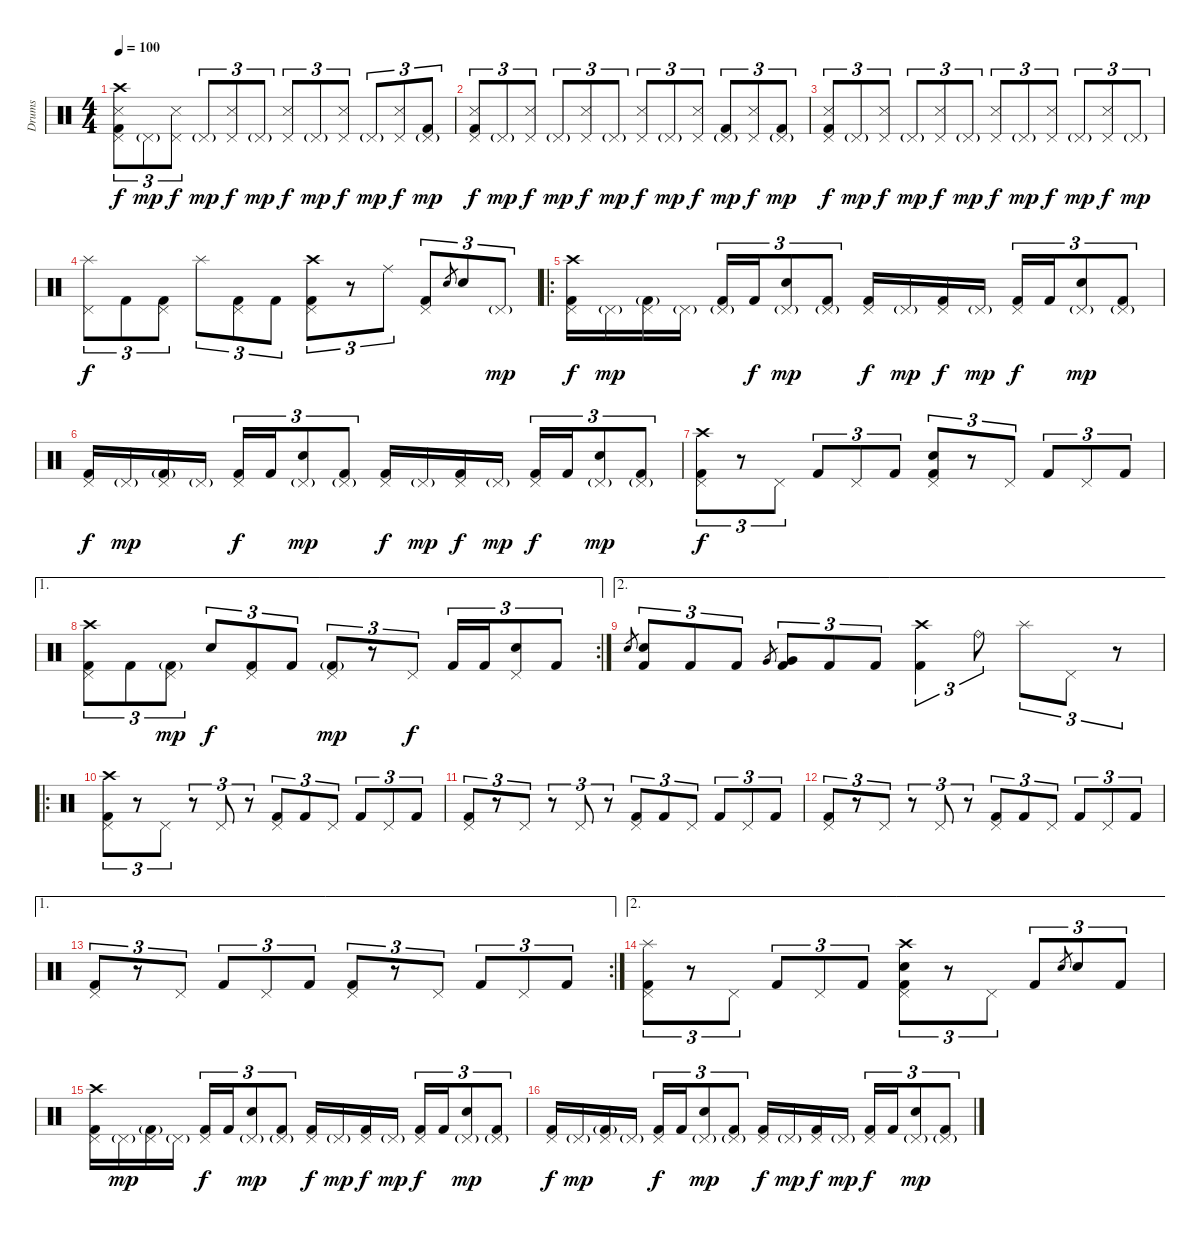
\track ("Drums" "Drums") {instrument percussion}
\staff {score}
\articulation defaults
\ts (4 4)
\tempo 100
\clef neutral
\ks c
("Crash high (hit)" "Pedal Hi-Hat (hit)" "Snare (side stick) 3" "Kick (hit) 2").8{tu (3 2) dy f} "Pedal Hi-Hat (hit)"{g}.8{tu (3 2) dy mp} ("Pedal Hi-Hat (hit)" "Snare (side stick) 3").8{tu (3 2) dy f} "Pedal Hi-Hat (hit)"{g}.8{tu (3 2) dy mp} ("Pedal Hi-Hat (hit)" "Snare (side stick) 3").8{tu (3 2) dy f} "Pedal Hi-Hat (hit)"{g}.8{tu (3 2) dy mp} ("Pedal Hi-Hat (hit)" "Snare (side stick) 3").8{tu (3 2) dy f} "Pedal Hi-Hat (hit)"{g}.8{tu (3 2) dy mp} ("Pedal Hi-Hat (hit)" "Snare (side stick) 3").8{tu (3 2) dy f} "Pedal Hi-Hat (hit)"{g}.8{tu (3 2) dy mp} ("Pedal Hi-Hat (hit)" "Snare (side stick) 3").8{tu (3 2) dy f} ("Pedal Hi-Hat (hit)"{g} "Kick (hit) 2").8{tu (3 2) dy mp} |
("Pedal Hi-Hat (hit)" "Snare (side stick) 3" "Kick (hit) 2").8{tu (3 2) dy f} "Pedal Hi-Hat (hit)"{g}.8{tu (3 2) dy mp} ("Pedal Hi-Hat (hit)" "Snare (side stick) 3").8{tu (3 2) dy f} "Pedal Hi-Hat (hit)"{g}.8{tu (3 2) dy mp} ("Pedal Hi-Hat (hit)" "Snare (side stick) 3").8{tu (3 2) dy f} "Pedal Hi-Hat (hit)"{g}.8{tu (3 2) dy mp} ("Pedal Hi-Hat (hit)" "Snare (side stick) 3").8{tu (3 2) dy f} "Pedal Hi-Hat (hit)"{g}.8{tu (3 2) dy mp} ("Pedal Hi-Hat (hit)" "Snare (side stick) 3").8{tu (3 2) dy f} ("Pedal Hi-Hat (hit)"{g} "Kick (hit) 2").8{tu (3 2) dy mp} ("Pedal Hi-Hat (hit)" "Snare (side stick) 3").8{tu (3 2) dy f} ("Pedal Hi-Hat (hit)"{g} "Kick (hit) 2").8{tu (3 2) dy mp} |
("Pedal Hi-Hat (hit)" "Snare (side stick) 3" "Kick (hit) 2").8{tu (3 2) dy f} "Pedal Hi-Hat (hit)"{g}.8{tu (3 2) dy mp} ("Pedal Hi-Hat (hit)" "Snare (side stick) 3").8{tu (3 2) dy f} "Pedal Hi-Hat (hit)"{g}.8{tu (3 2) dy mp} ("Pedal Hi-Hat (hit)" "Snare (side stick) 3").8{tu (3 2) dy f} "Pedal Hi-Hat (hit)"{g}.8{tu (3 2) dy mp} ("Pedal Hi-Hat (hit)" "Snare (side stick) 3").8{tu (3 2) dy f} "Pedal Hi-Hat (hit)"{g}.8{tu (3 2) dy mp} ("Pedal Hi-Hat (hit)" "Snare (side stick) 3").8{tu (3 2) dy f} "Pedal Hi-Hat (hit)"{g}.8{tu (3 2) dy mp} ("Pedal Hi-Hat (hit)" "Snare (side stick) 3").8{tu (3 2) dy f} "Pedal Hi-Hat (hit)"{g}.8{tu (3 2) dy mp} |
("Splash (hit)" "Pedal Hi-Hat (hit)").8{tu (3 2) dy f} "Kick (hit) 2".8{tu (3 2)} ("Pedal Hi-Hat (hit)" "Kick (hit) 2").8{tu (3 2)} "Splash (hit)".8{tu (3 2)} ("Pedal Hi-Hat (hit)" "Kick (hit) 2").8{tu (3 2)} "Kick (hit) 2".8{tu (3 2)} ("Crash high (hit)" "Pedal Hi-Hat (hit)" "Kick (hit) 2").8{tu (3 2)} r.8{tu (3 2)} "Ride (middle)".8{tu (3 2)} ("Pedal Hi-Hat (hit)" "Kick (hit) 2").8{tu (3 2)} "Snare (hit) 2".8{gr} "Snare (hit) 2".8{tu (3 2)} "Pedal Hi-Hat (hit)"{g}.8{tu (3 2) dy mp} |
\ro
("Crash high (hit)" "Pedal Hi-Hat (hit)" "Kick (hit) 2").16{dy f} "Pedal Hi-Hat (hit)"{g}.16{dy mp} ("Pedal Hi-Hat (hit)" "Kick (hit) 2"{g}).16 "Pedal Hi-Hat (hit)"{g}.16 ("Pedal Hi-Hat (hit)"{g} "Kick (hit) 2").16{tu (3 2)} "Kick (hit) 2".16{tu (3 2) dy f} ("Pedal Hi-Hat (hit)"{g} "Snare (hit) 2").8{tu (3 2) dy mp} ("Pedal Hi-Hat (hit)"{g} "Kick (hit) 2").8{tu (3 2)} ("Pedal Hi-Hat (hit)" "Kick (hit) 2").16{dy f} "Pedal Hi-Hat (hit)"{g}.16{dy mp} ("Pedal Hi-Hat (hit)" "Kick (hit) 2").16{dy f} "Pedal Hi-Hat (hit)"{g}.16{dy mp} ("Pedal Hi-Hat (hit)" "Kick (hit) 2").16{tu (3 2) dy f} "Kick (hit) 2".16{tu (3 2)} ("Pedal Hi-Hat (hit)"{g} "Snare (hit) 2").8{tu (3 2) dy mp} ("Pedal Hi-Hat (hit)"{g} "Kick (hit) 2").8{tu (3 2)} |
("Pedal Hi-Hat (hit)" "Kick (hit) 2").16{dy f} "Pedal Hi-Hat (hit)"{g}.16{dy mp} ("Pedal Hi-Hat (hit)" "Kick (hit) 2"{g}).16 "Pedal Hi-Hat (hit)"{g}.16 ("Pedal Hi-Hat (hit)" "Kick (hit) 2").16{tu (3 2) dy f} "Kick (hit) 2".16{tu (3 2)} ("Pedal Hi-Hat (hit)"{g} "Snare (hit) 2").8{tu (3 2) dy mp} ("Pedal Hi-Hat (hit)"{g} "Kick (hit) 2").8{tu (3 2)} ("Pedal Hi-Hat (hit)" "Kick (hit) 2").16{dy f} "Pedal Hi-Hat (hit)"{g}.16{dy mp} ("Pedal Hi-Hat (hit)" "Kick (hit) 2").16{dy f} "Pedal Hi-Hat (hit)"{g}.16{dy mp} ("Pedal Hi-Hat (hit)" "Kick (hit) 2").16{tu (3 2) dy f} "Kick (hit) 2".16{tu (3 2)} ("Pedal Hi-Hat (hit)"{g} "Snare (hit) 2").8{tu (3 2) dy mp} ("Pedal Hi-Hat (hit)"{g} "Kick (hit) 2").8{tu (3 2)} |
("Crash high (hit)" "Pedal Hi-Hat (hit)" "Kick (hit) 2").8{tu (3 2) dy f} r.8{tu (3 2)} "Pedal Hi-Hat (hit)".8{tu (3 2)} "Kick (hit) 2".8{tu (3 2)} "Pedal Hi-Hat (hit)".8{tu (3 2)} "Kick (hit) 2".8{tu (3 2)} ("Pedal Hi-Hat (hit)" "Snare (hit) 2" "Kick (hit) 2").8{tu (3 2)} r.8{tu (3 2)} "Pedal Hi-Hat (hit)".8{tu (3 2)} "Kick (hit) 2".8{tu (3 2)} "Pedal Hi-Hat (hit)".8{tu (3 2)} "Kick (hit) 2".8{tu (3 2)} |
\ae 1
\rc 2
("Crash high (hit)" "Pedal Hi-Hat (hit)" "Kick (hit) 2").8{tu (3 2)} "Kick (hit) 2".8{tu (3 2)} ("Pedal Hi-Hat (hit)" "Kick (hit) 2"{g}).8{tu (3 2) dy mp} "Snare (hit) 2".8{tu (3 2) dy f} ("Pedal Hi-Hat (hit)" "Kick (hit) 2").8{tu (3 2)} "Kick (hit) 2".8{tu (3 2)} ("Pedal Hi-Hat (hit)" "Kick (hit) 2"{g}).8{tu (3 2) dy mp} r.8{tu (3 2)} "Pedal Hi-Hat (hit)".8{tu (3 2) dy f} "Kick (hit) 2".16{tu (3 2)} "Kick (hit) 2".16{tu (3 2)} ("Pedal Hi-Hat (hit)" "Snare (hit) 2").8{tu (3 2)} "Kick (hit) 2".8{tu (3 2)} |
\ae 2 "Snare (hit) 2".8{gr}
("Snare (hit) 2" "Kick (hit) 2").8{tu (3 2)} "Kick (hit) 2".8{tu (3 2)} "Kick (hit) 2".8{tu (3 2)} "Very Low Tom (hit)".8{gr} ("Very Low Tom (hit)" "Kick (hit) 2").8{tu (3 2)} "Kick (hit) 2".8{tu (3 2)} "Kick (hit) 2".8{tu (3 2)} ("Crash high (hit)" "Kick (hit) 2").4{tu (3 2)} "Ride (bell)".8{tu (3 2)} "Splash (hit)".8{tu (3 2)} "Pedal Hi-Hat (hit)".8{tu (3 2)} r.8{tu (3 2)} |
\ro
("Crash high (hit)" "Pedal Hi-Hat (hit)" "Kick (hit) 2").8{tu (3 2)} r.8{tu (3 2)} "Pedal Hi-Hat (hit)".8{tu (3 2)} r.8{tu (3 2)} "Pedal Hi-Hat (hit)".8{tu (3 2)} r.8{tu (3 2)} ("Pedal Hi-Hat (hit)" "Kick (hit) 2").8{tu (3 2)} "Kick (hit) 2".8{tu (3 2)} "Pedal Hi-Hat (hit)".8{tu (3 2)} "Kick (hit) 2".8{tu (3 2)} "Pedal Hi-Hat (hit)".8{tu (3 2)} "Kick (hit) 2".8{tu (3 2)} |
("Pedal Hi-Hat (hit)" "Kick (hit) 2").8{tu (3 2)} r.8{tu (3 2)} "Pedal Hi-Hat (hit)".8{tu (3 2)} r.8{tu (3 2)} "Pedal Hi-Hat (hit)".8{tu (3 2)} r.8{tu (3 2)} ("Pedal Hi-Hat (hit)" "Kick (hit) 2").8{tu (3 2)} "Kick (hit) 2".8{tu (3 2)} "Pedal Hi-Hat (hit)".8{tu (3 2)} "Kick (hit) 2".8{tu (3 2)} "Pedal Hi-Hat (hit)".8{tu (3 2)} "Kick (hit) 2".8{tu (3 2)} |
("Pedal Hi-Hat (hit)" "Kick (hit) 2").8{tu (3 2)} r.8{tu (3 2)} "Pedal Hi-Hat (hit)".8{tu (3 2)} r.8{tu (3 2)} "Pedal Hi-Hat (hit)".8{tu (3 2)} r.8{tu (3 2)} ("Pedal Hi-Hat (hit)" "Kick (hit) 2").8{tu (3 2)} "Kick (hit) 2".8{tu (3 2)} "Pedal Hi-Hat (hit)".8{tu (3 2)} "Kick (hit) 2".8{tu (3 2)} "Pedal Hi-Hat (hit)".8{tu (3 2)} "Kick (hit) 2".8{tu (3 2)} |
\ae 1
\rc 2
("Pedal Hi-Hat (hit)" "Kick (hit) 2").8{tu (3 2)} r.8{tu (3 2)} "Pedal Hi-Hat (hit)".8{tu (3 2)} "Kick (hit) 2".8{tu (3 2)} "Pedal Hi-Hat (hit)".8{tu (3 2)} "Kick (hit) 2".8{tu (3 2)} ("Pedal Hi-Hat (hit)" "Kick (hit) 2").8{tu (3 2)} r.8{tu (3 2)} "Pedal Hi-Hat (hit)".8{tu (3 2)} "Kick (hit) 2".8{tu (3 2)} "Pedal Hi-Hat (hit)".8{tu (3 2)} "Kick (hit) 2".8{tu (3 2)} |
\ae 2
("Splash (hit)" "Pedal Hi-Hat (hit)" "Kick (hit) 2").8{tu (3 2)} r.8{tu (3 2)} "Pedal Hi-Hat (hit)".8{tu (3 2)} "Kick (hit) 2".8{tu (3 2)} "Pedal Hi-Hat (hit)".8{tu (3 2)} "Kick (hit) 2".8{tu (3 2)} ("Crash high (hit)" "Pedal Hi-Hat (hit)" "Snare (hit) 2" "Kick (hit) 2").8{tu (3 2)} r.8{tu (3 2)} "Pedal Hi-Hat (hit)".8{tu (3 2)} "Kick (hit) 2".8{tu (3 2)} "Snare (hit) 2".8{gr} "Snare (hit) 2".8{tu (3 2)} "Kick (hit) 2".8{tu (3 2)} |
("Crash high (hit)" "Pedal Hi-Hat (hit)" "Kick (hit) 2").16 "Pedal Hi-Hat (hit)"{g}.16{dy mp} ("Pedal Hi-Hat (hit)" "Kick (hit) 2"{g}).16 "Pedal Hi-Hat (hit)"{g}.16 ("Pedal Hi-Hat (hit)" "Kick (hit) 2").16{tu (3 2) dy f} "Kick (hit) 2".16{tu (3 2)} ("Pedal Hi-Hat (hit)"{g} "Snare (hit) 2").8{tu (3 2) dy mp} ("Pedal Hi-Hat (hit)"{g} "Kick (hit) 2").8{tu (3 2)} ("Pedal Hi-Hat (hit)" "Kick (hit) 2").16{dy f} "Pedal Hi-Hat (hit)"{g}.16{dy mp} ("Pedal Hi-Hat (hit)" "Kick (hit) 2").16{dy f} "Pedal Hi-Hat (hit)"{g}.16{dy mp} ("Pedal Hi-Hat (hit)" "Kick (hit) 2").16{tu (3 2) dy f} "Kick (hit) 2".16{tu (3 2)} ("Pedal Hi-Hat (hit)"{g} "Snare (hit) 2").8{tu (3 2) dy mp} ("Pedal Hi-Hat (hit)"{g} "Kick (hit) 2").8{tu (3 2)} |
("Pedal Hi-Hat (hit)" "Kick (hit) 2").16{dy f} "Pedal Hi-Hat (hit)"{g}.16{dy mp} ("Pedal Hi-Hat (hit)" "Kick (hit) 2"{g}).16 "Pedal Hi-Hat (hit)"{g}.16 ("Pedal Hi-Hat (hit)" "Kick (hit) 2").16{tu (3 2) dy f} "Kick (hit) 2".16{tu (3 2)} ("Pedal Hi-Hat (hit)"{g} "Snare (hit) 2").8{tu (3 2) dy mp} ("Pedal Hi-Hat (hit)"{g} "Kick (hit) 2").8{tu (3 2)} ("Pedal Hi-Hat (hit)" "Kick (hit) 2").16{dy f} "Pedal Hi-Hat (hit)"{g}.16{dy mp} ("Pedal Hi-Hat (hit)" "Kick (hit) 2").16{dy f} "Pedal Hi-Hat (hit)"{g}.16{dy mp} ("Pedal Hi-Hat (hit)" "Kick (hit) 2").16{tu (3 2) dy f} "Kick (hit) 2".16{tu (3 2)} ("Pedal Hi-Hat (hit)"{g} "Snare (hit) 2").8{tu (3 2) dy mp} ("Pedal Hi-Hat (hit)"{g} "Kick (hit) 2").8{tu (3 2)}
